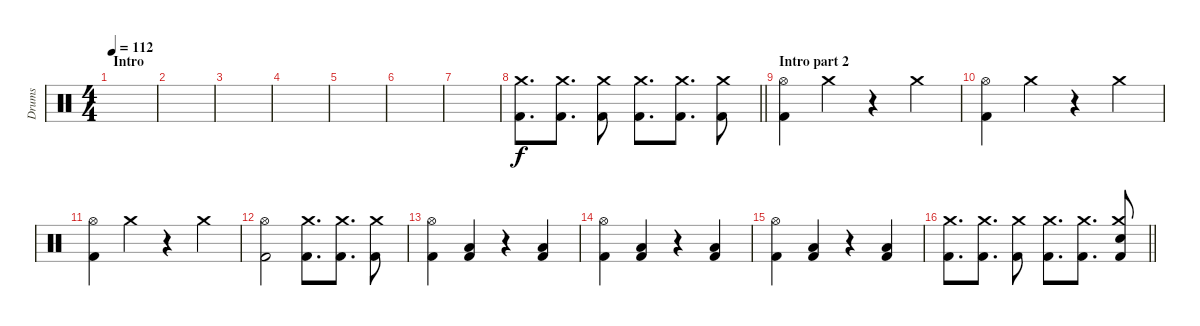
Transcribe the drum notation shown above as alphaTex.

\track ("Drums" "Drums") {instrument percussion}
\staff {score}
\articulation defaults
\ts (4 4)
\section ("" "Intro")
\tempo 112
\clef neutral
\ks c
|
|
|
|
|
|
|
\barLineRight lightlight
("Kick (hit) 2" "Crash medium (hit)").8{d} ("Kick (hit) 2" "Crash medium (hit)").8{d} ("Kick (hit) 2" "Crash medium (hit)").8 ("Kick (hit) 2" "Crash medium (hit)").8{d} ("Kick (hit) 2" "Crash medium (hit)").8{d} ("Kick (hit) 2" "Crash medium (hit)").8 |
\section ("" "Intro part 2")
("Hi-Hat (open)" "Kick (hit) 2").4 "Crash medium (hit)".4 r.4 "Crash medium (hit)".4 |
("Hi-Hat (open)" "Kick (hit) 2").4 "Crash medium (hit)".4 r.4 "Crash medium (hit)".4 |
("Hi-Hat (open)" "Kick (hit) 2").4 "Crash medium (hit)".4 r.4 "Crash medium (hit)".4 |
("Hi-Hat (open)" "Kick (hit) 2").2 ("Kick (hit) 2" "Crash medium (hit)").8{d} ("Kick (hit) 2" "Crash medium (hit)").8{d} ("Kick (hit) 2" "Crash medium (hit)").8 |
("Hi-Hat (open)" "Kick (hit) 2").4 ("Low Floor Tom (hit)" "Kick (hit) 2").4 r.4 ("Low Floor Tom (hit)" "Kick (hit) 2").4 |
("Hi-Hat (open)" "Kick (hit) 2").4 ("Low Floor Tom (hit)" "Kick (hit) 2").4 r.4 ("Low Floor Tom (hit)" "Kick (hit) 2").4 |
("Hi-Hat (open)" "Kick (hit) 2").4 ("Low Floor Tom (hit)" "Kick (hit) 2").4 r.4 ("Low Floor Tom (hit)" "Kick (hit) 2").4 |
\barLineRight lightlight
("Kick (hit) 2" "Crash medium (hit)").8{d} ("Kick (hit) 2" "Crash medium (hit)").8{d} ("Kick (hit) 2" "Crash medium (hit)").8 ("Kick (hit) 2" "Crash medium (hit)").8{d} ("Kick (hit) 2" "Crash medium (hit)").8{d} ("Snare (hit) 2" "Kick (hit) 2" "Crash medium (hit)").8
